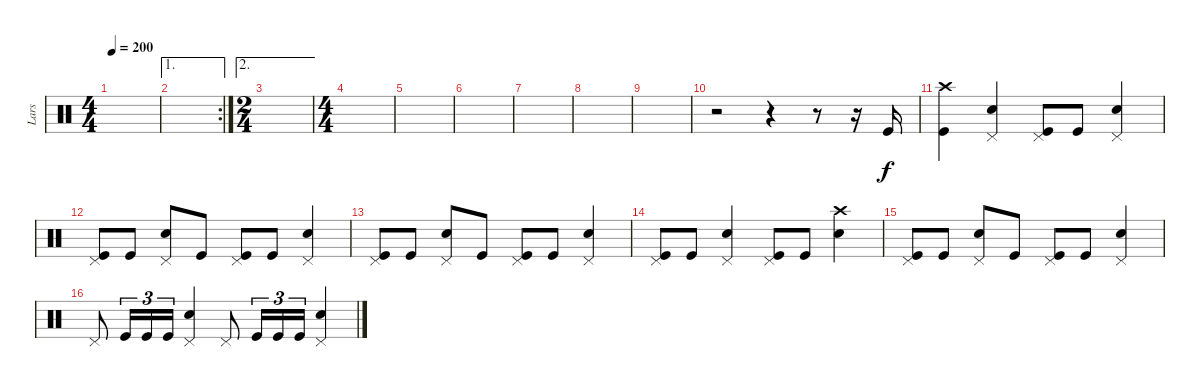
\track ("Lars" "Lars") {instrument percussion}
\staff {score}
\articulation defaults
\ts (4 4)
\tempo 200
\clef neutral
\ks c
|
\ae 1
\rc 2
|
\ae 2
\ts (2 4)
|
\ts (4 4)
|
|
|
|
|
|
r.2 r.4 r.8 r.16 "Kick (hit)".16 |
("Crash high (hit)" "Kick (hit)").4 ("Pedal Hi-Hat (hit)" "Snare (hit) 2").4 ("Pedal Hi-Hat (hit)" "Kick (hit)").8 "Kick (hit)".8 ("Pedal Hi-Hat (hit)" "Snare (hit) 2").4 |
("Pedal Hi-Hat (hit)" "Kick (hit)").8 "Kick (hit)".8 ("Pedal Hi-Hat (hit)" "Snare (hit) 2").8 "Kick (hit)".8 ("Pedal Hi-Hat (hit)" "Kick (hit)").8 "Kick (hit)".8 ("Pedal Hi-Hat (hit)" "Snare (hit) 2").4 |
("Pedal Hi-Hat (hit)" "Kick (hit)").8 "Kick (hit)".8 ("Pedal Hi-Hat (hit)" "Snare (hit) 2").8 "Kick (hit)".8 ("Pedal Hi-Hat (hit)" "Kick (hit)").8 "Kick (hit)".8 ("Pedal Hi-Hat (hit)" "Snare (hit) 2").4 |
("Pedal Hi-Hat (hit)" "Kick (hit)").8 "Kick (hit)".8 ("Pedal Hi-Hat (hit)" "Snare (hit) 2").4 ("Pedal Hi-Hat (hit)" "Kick (hit)").8 "Kick (hit)".8 ("Crash high (hit)" "Snare (hit) 2").4 |
("Pedal Hi-Hat (hit)" "Kick (hit)").8 "Kick (hit)".8 ("Pedal Hi-Hat (hit)" "Snare (hit) 2").8 "Kick (hit)".8 ("Pedal Hi-Hat (hit)" "Kick (hit)").8 "Kick (hit)".8 ("Pedal Hi-Hat (hit)" "Snare (hit) 2").4 |
"Pedal Hi-Hat (hit)".8 "Kick (hit)".16{tu (3 2)} "Kick (hit)".16{tu (3 2)} "Kick (hit)".16{tu (3 2)} ("Pedal Hi-Hat (hit)" "Snare (hit) 2").4 "Pedal Hi-Hat (hit)".8 "Kick (hit)".16{tu (3 2)} "Kick (hit)".16{tu (3 2)} "Kick (hit)".16{tu (3 2)} ("Pedal Hi-Hat (hit)" "Snare (hit) 2").4
